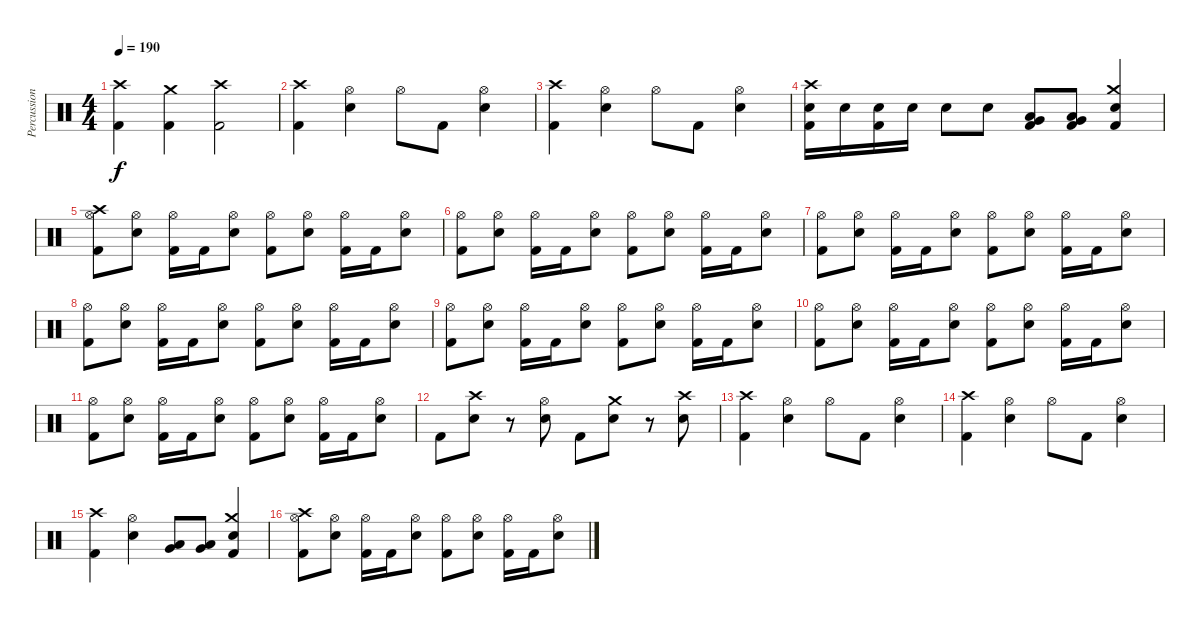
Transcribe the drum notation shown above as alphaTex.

\track ("Percussion" "Percussion") {instrument percussion}
\staff {score}
\articulation defaults
\ts (4 4)
\tempo 190
\clef neutral
\ks c
("Crash high (hit)" "Kick (hit) 2").4{dy f} ("Crash medium (hit)" "Kick (hit) 2").4 ("Crash high (hit)" "Kick (hit) 2").2 |
("Crash high (hit)" "Kick (hit) 2").4 ("Hi-Hat (open)" "Snare (hit) 2").4 "Hi-Hat (open)".8 "Kick (hit) 2".8 ("Hi-Hat (open)" "Snare (hit) 2").4 |
("Crash high (hit)" "Kick (hit) 2").4 ("Hi-Hat (open)" "Snare (hit) 2").4 "Hi-Hat (open)".8 "Kick (hit) 2".8 ("Hi-Hat (open)" "Snare (hit) 2").4 |
("Crash high (hit)" "Snare (hit) 2" "Kick (hit) 2").16 "Snare (hit) 2".16 ("Snare (hit) 2" "Kick (hit) 2").16 "Snare (hit) 2".16 "Snare (hit) 2".8 "Snare (hit) 2".8 ("Low Tom (hit)" "Very Low Tom (hit)" "Kick (hit) 2").8 ("Low Tom (hit)" "Very Low Tom (hit)" "Kick (hit) 2").8 ("Crash medium (hit)" "Snare (hit) 2" "Kick (hit) 2").4 |
("Crash high (hit)" "Hi-Hat (open)" "Kick (hit) 2").8 ("Hi-Hat (open)" "Snare (hit) 2").8 ("Hi-Hat (open)" "Kick (hit) 2").16 "Kick (hit) 2".16 ("Hi-Hat (open)" "Snare (hit) 2").8 ("Hi-Hat (open)" "Kick (hit) 2").8 ("Hi-Hat (open)" "Snare (hit) 2").8 ("Hi-Hat (open)" "Kick (hit) 2").16 "Kick (hit) 2".16 ("Hi-Hat (open)" "Snare (hit) 2").8 |
("Hi-Hat (open)" "Kick (hit) 2").8 ("Hi-Hat (open)" "Snare (hit) 2").8 ("Hi-Hat (open)" "Kick (hit) 2").16 "Kick (hit) 2".16 ("Hi-Hat (open)" "Snare (hit) 2").8 ("Hi-Hat (open)" "Kick (hit) 2").8 ("Hi-Hat (open)" "Snare (hit) 2").8 ("Hi-Hat (open)" "Kick (hit) 2").16 "Kick (hit) 2".16 ("Hi-Hat (open)" "Snare (hit) 2").8 |
("Hi-Hat (open)" "Kick (hit) 2").8 ("Hi-Hat (open)" "Snare (hit) 2").8 ("Hi-Hat (open)" "Kick (hit) 2").16 "Kick (hit) 2".16 ("Hi-Hat (open)" "Snare (hit) 2").8 ("Hi-Hat (open)" "Kick (hit) 2").8 ("Hi-Hat (open)" "Snare (hit) 2").8 ("Hi-Hat (open)" "Kick (hit) 2").16 "Kick (hit) 2".16 ("Hi-Hat (open)" "Snare (hit) 2").8 |
("Hi-Hat (open)" "Kick (hit) 2").8 ("Hi-Hat (open)" "Snare (hit) 2").8 ("Hi-Hat (open)" "Kick (hit) 2").16 "Kick (hit) 2".16 ("Hi-Hat (open)" "Snare (hit) 2").8 ("Hi-Hat (open)" "Kick (hit) 2").8 ("Hi-Hat (open)" "Snare (hit) 2").8 ("Hi-Hat (open)" "Kick (hit) 2").16 "Kick (hit) 2".16 ("Hi-Hat (open)" "Snare (hit) 2").8 |
("Hi-Hat (open)" "Kick (hit) 2").8 ("Hi-Hat (open)" "Snare (hit) 2").8 ("Hi-Hat (open)" "Kick (hit) 2").16 "Kick (hit) 2".16 ("Hi-Hat (open)" "Snare (hit) 2").8 ("Hi-Hat (open)" "Kick (hit) 2").8 ("Hi-Hat (open)" "Snare (hit) 2").8 ("Hi-Hat (open)" "Kick (hit) 2").16 "Kick (hit) 2".16 ("Hi-Hat (open)" "Snare (hit) 2").8 |
("Hi-Hat (open)" "Kick (hit) 2").8 ("Hi-Hat (open)" "Snare (hit) 2").8 ("Hi-Hat (open)" "Kick (hit) 2").16 "Kick (hit) 2".16 ("Hi-Hat (open)" "Snare (hit) 2").8 ("Hi-Hat (open)" "Kick (hit) 2").8 ("Hi-Hat (open)" "Snare (hit) 2").8 ("Hi-Hat (open)" "Kick (hit) 2").16 "Kick (hit) 2".16 ("Hi-Hat (open)" "Snare (hit) 2").8 |
("Hi-Hat (open)" "Kick (hit) 2").8 ("Hi-Hat (open)" "Snare (hit) 2").8 ("Hi-Hat (open)" "Kick (hit) 2").16 "Kick (hit) 2".16 ("Hi-Hat (open)" "Snare (hit) 2").8 ("Hi-Hat (open)" "Kick (hit) 2").8 ("Hi-Hat (open)" "Snare (hit) 2").8 ("Hi-Hat (open)" "Kick (hit) 2").16 "Kick (hit) 2".16 ("Hi-Hat (open)" "Snare (hit) 2").8 |
"Kick (hit) 2".8 ("Crash high (hit)" "Snare (hit) 2").8 r.8 ("Hi-Hat (open)" "Snare (hit) 2").8 "Kick (hit) 2".8 ("Crash medium (hit)" "Snare (hit) 2").8 r.8 ("Crash high (hit)" "Snare (hit) 2").8 |
("Crash high (hit)" "Kick (hit) 2").4 ("Hi-Hat (open)" "Snare (hit) 2").4 "Hi-Hat (open)".8 "Kick (hit) 2".8 ("Hi-Hat (open)" "Snare (hit) 2").4 |
("Crash high (hit)" "Kick (hit) 2").4 ("Hi-Hat (open)" "Snare (hit) 2").4 "Hi-Hat (open)".8 "Kick (hit) 2".8 ("Hi-Hat (open)" "Snare (hit) 2").4 |
("Crash high (hit)" "Kick (hit) 2").4 ("Hi-Hat (open)" "Snare (hit) 2").4 ("Low Tom (hit)" "Very Low Tom (hit)").8 ("Low Tom (hit)" "Very Low Tom (hit)").8 ("Crash medium (hit)" "Snare (hit) 2" "Kick (hit) 2").4 |
("Crash high (hit)" "Hi-Hat (open)" "Kick (hit) 2").8 ("Hi-Hat (open)" "Snare (hit) 2").8 ("Hi-Hat (open)" "Kick (hit) 2").16 "Kick (hit) 2".16 ("Hi-Hat (open)" "Snare (hit) 2").8 ("Hi-Hat (open)" "Kick (hit) 2").8 ("Hi-Hat (open)" "Snare (hit) 2").8 ("Hi-Hat (open)" "Kick (hit) 2").16 "Kick (hit) 2".16 ("Hi-Hat (open)" "Snare (hit) 2").8
